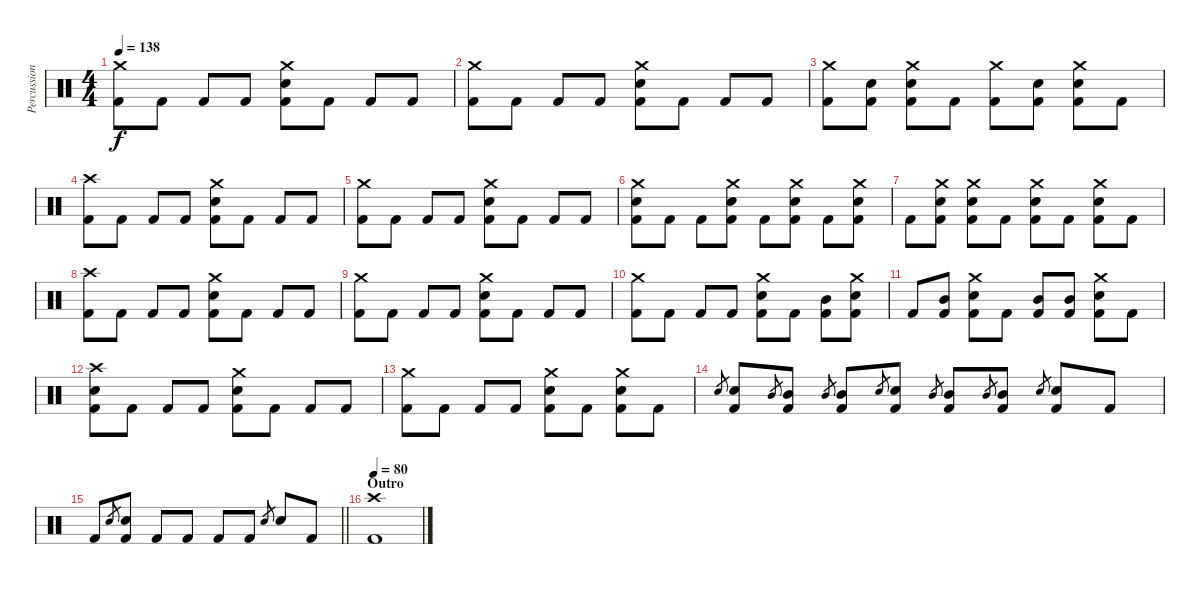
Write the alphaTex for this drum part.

\track ("Percussion" "Percussion") {instrument percussion}
\staff {score}
\articulation defaults
\ts (4 4)
\tempo 138
\clef neutral
\ks c
("Crash medium (hit)" "Kick (hit) 2").8{dy f} "Kick (hit) 2".8 "Kick (hit) 2".8 "Kick (hit) 2".8 ("Crash medium (hit)" "Electric Snare (hit)" "Kick (hit) 2").8 "Kick (hit) 2".8 "Kick (hit) 2".8 "Kick (hit) 2".8 |
("Crash medium (hit)" "Kick (hit) 2").8 "Kick (hit) 2".8 "Kick (hit) 2".8 "Kick (hit) 2".8 ("Crash medium (hit)" "Electric Snare (hit)" "Kick (hit) 2").8 "Kick (hit) 2".8 "Kick (hit) 2".8 "Kick (hit) 2".8 |
("Crash medium (hit)" "Kick (hit) 2").8 ("Electric Snare (hit)" "Kick (hit) 2").8 ("Crash medium (hit)" "Electric Snare (hit)" "Kick (hit) 2").8 "Kick (hit) 2".8 ("Crash medium (hit)" "Kick (hit) 2").8 ("Electric Snare (hit)" "Kick (hit) 2").8 ("Crash medium (hit)" "Electric Snare (hit)" "Kick (hit) 2").8 "Kick (hit) 2".8 |
("Crash high (hit)" "Kick (hit) 2").8 "Kick (hit) 2".8 "Kick (hit) 2".8 "Kick (hit) 2".8 ("Crash medium (hit)" "Electric Snare (hit)" "Kick (hit) 2").8 "Kick (hit) 2".8 "Kick (hit) 2".8 "Kick (hit) 2".8 |
("Crash medium (hit)" "Kick (hit) 2").8 "Kick (hit) 2".8 "Kick (hit) 2".8 "Kick (hit) 2".8 ("Crash medium (hit)" "Electric Snare (hit)" "Kick (hit) 2").8 "Kick (hit) 2".8 "Kick (hit) 2".8 "Kick (hit) 2".8 |
("Crash medium (hit)" "Electric Snare (hit)" "Kick (hit) 2").8 "Kick (hit) 2".8 "Kick (hit) 2".8 ("Crash medium (hit)" "Electric Snare (hit)" "Kick (hit) 2").8 "Kick (hit) 2".8 ("Crash medium (hit)" "Electric Snare (hit)" "Kick (hit) 2").8 "Kick (hit) 2".8 ("Crash medium (hit)" "Electric Snare (hit)" "Kick (hit) 2").8 |
"Kick (hit) 2".8 ("Crash medium (hit)" "Electric Snare (hit)" "Kick (hit) 2").8 ("Crash medium (hit)" "Electric Snare (hit)" "Kick (hit) 2").8 "Kick (hit) 2".8 ("Crash medium (hit)" "Electric Snare (hit)" "Kick (hit) 2").8 "Kick (hit) 2".8 ("Crash medium (hit)" "Electric Snare (hit)" "Kick (hit) 2").8 "Kick (hit) 2".8 |
("Crash high (hit)" "Kick (hit) 2").8 "Kick (hit) 2".8 "Kick (hit) 2".8 "Kick (hit) 2".8 ("Crash medium (hit)" "Electric Snare (hit)" "Kick (hit) 2").8 "Kick (hit) 2".8 "Kick (hit) 2".8 "Kick (hit) 2".8 |
("Crash medium (hit)" "Kick (hit) 2").8 "Kick (hit) 2".8 "Kick (hit) 2".8 "Kick (hit) 2".8 ("Crash medium (hit)" "Electric Snare (hit)" "Kick (hit) 2").8 "Kick (hit) 2".8 "Kick (hit) 2".8 "Kick (hit) 2".8 |
("Crash medium (hit)" "Kick (hit) 2").8 "Kick (hit) 2".8 "Kick (hit) 2".8 "Kick (hit) 2".8 ("Crash medium (hit)" "Electric Snare (hit)" "Kick (hit) 2").8 "Kick (hit) 2".8 ("Mid Tom (hit)" "Kick (hit) 2").8 ("Crash medium (hit)" "Electric Snare (hit)" "Kick (hit) 2").8 |
"Kick (hit) 2".8 ("Mid Tom (hit)" "Kick (hit) 2").8 ("Crash medium (hit)" "Electric Snare (hit)" "Kick (hit) 2").8 "Kick (hit) 2".8 ("Mid Tom (hit)" "Kick (hit) 2").8 ("Mid Tom (hit)" "Kick (hit) 2").8 ("Crash medium (hit)" "Electric Snare (hit)" "Kick (hit) 2").8 "Kick (hit) 2".8 |
("Crash high (hit)" "Electric Snare (hit)" "Kick (hit) 2").8 "Kick (hit) 2".8 "Kick (hit) 2".8 "Kick (hit) 2".8 ("Crash medium (hit)" "Electric Snare (hit)" "Kick (hit) 2").8 "Kick (hit) 2".8 "Kick (hit) 2".8 "Kick (hit) 2".8 |
("Crash medium (hit)" "Kick (hit) 2").8 "Kick (hit) 2".8 "Kick (hit) 2".8 "Kick (hit) 2".8 ("Crash medium (hit)" "Electric Snare (hit)" "Kick (hit) 2").8 "Kick (hit) 2".8 ("Crash medium (hit)" "Electric Snare (hit)" "Kick (hit) 2").8 "Kick (hit) 2".8 |
"Electric Snare (hit)".8{gr} ("Electric Snare (hit)" "Kick (hit) 2").8 "Mid Tom (hit)".8{gr} ("Mid Tom (hit)" "Kick (hit) 2").8 "Mid Tom (hit)".8{gr} ("Mid Tom (hit)" "Kick (hit) 2").8 "Electric Snare (hit)".8{gr} ("Electric Snare (hit)" "Kick (hit) 2").8 "Mid Tom (hit)".8{gr} ("Mid Tom (hit)" "Kick (hit) 2").8 "Mid Tom (hit)".8{gr} ("Mid Tom (hit)" "Kick (hit) 2").8 "Electric Snare (hit)".8{gr} ("Electric Snare (hit)" "Kick (hit) 2").8 "Kick (hit) 2".8 |
\barLineRight lightlight "Kick (hit) 2".8 "Electric Snare (hit)".8{gr}
("Electric Snare (hit)" "Kick (hit) 2").8 "Kick (hit) 2".8 "Kick (hit) 2".8 "Kick (hit) 2".8 "Kick (hit) 2".8 "Electric Snare (hit)".8{gr} "Electric Snare (hit)".8 "Kick (hit) 2".8 |
\section ("" "Outro")
\tempo 80
("Crash high (hit)" "Kick (hit) 2").1
